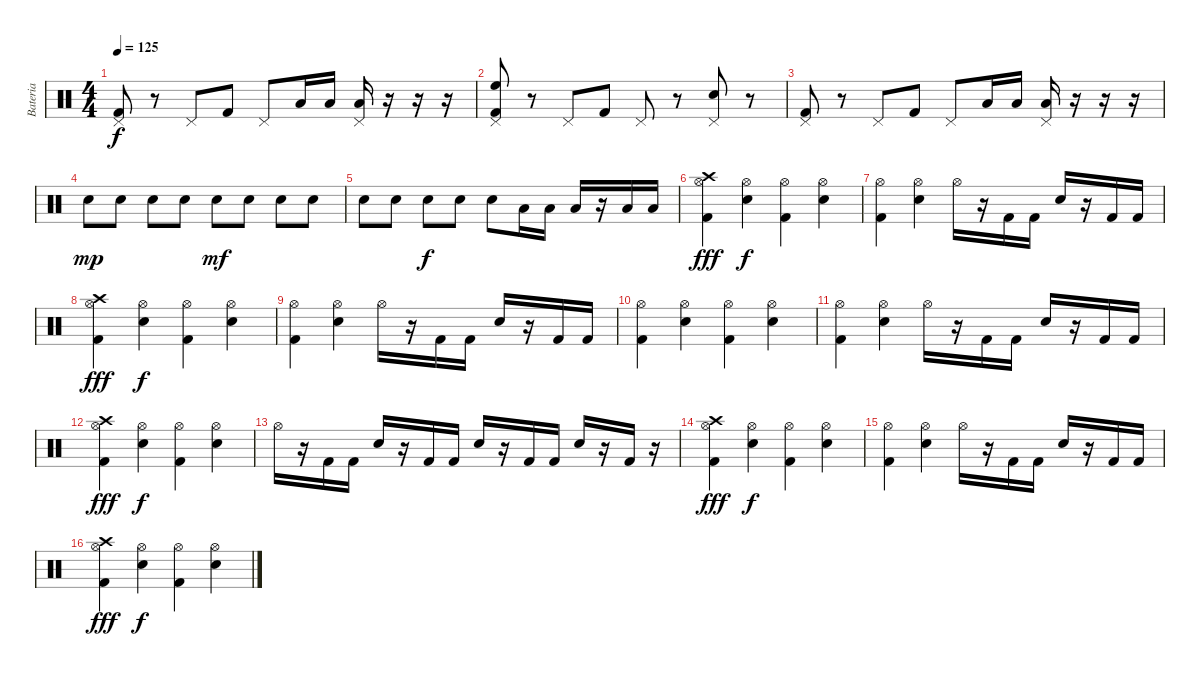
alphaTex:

\track ("Bateria" "Bateria") {instrument percussion}
\staff {score}
\articulation defaults
\ts (4 4)
\tempo 125
\clef neutral
\ks c
("Pedal Hi-Hat (hit)" "Kick (hit) 2").8{dy f} r.8 "Pedal Hi-Hat (hit)".8 "Kick (hit) 2".8 "Pedal Hi-Hat (hit)".8 "Low Tom (hit)".16 "Low Tom (hit)".16 ("Low Tom (hit)" "Pedal Hi-Hat (hit)").16 r.16 r.16 r.16 |
("High Floor Tom (hit)" "Pedal Hi-Hat (hit)" "Kick (hit) 2").8 r.8 "Pedal Hi-Hat (hit)".8 "Kick (hit) 2".8 "Pedal Hi-Hat (hit)".8 r.8 ("Snare (hit) 2" "Pedal Hi-Hat (hit)").8 r.8 |
("Pedal Hi-Hat (hit)" "Kick (hit) 2").8 r.8 "Pedal Hi-Hat (hit)".8 "Kick (hit) 2".8 "Pedal Hi-Hat (hit)".8 "Low Tom (hit)".16 "Low Tom (hit)".16 ("Low Tom (hit)" "Pedal Hi-Hat (hit)").16 r.16 r.16 r.16 |
"Snare (hit) 2".8{dy mp} "Snare (hit) 2".8 "Snare (hit) 2".8 "Snare (hit) 2".8 "Snare (hit) 2".8{dy mf} "Snare (hit) 2".8 "Snare (hit) 2".8 "Snare (hit) 2".8 |
"Snare (hit) 2".8 "Snare (hit) 2".8 "Snare (hit) 2".8{dy f} "Snare (hit) 2".8 "Snare (hit) 2".8 "Low Tom (hit)".16 "Low Tom (hit)".16 "Low Tom (hit)".16 r.16 "Low Tom (hit)".16 "Low Tom (hit)".16 |
("Hi-Hat (open)" "Kick (hit) 2" "Crash high (hit)").4{dy fff} ("Hi-Hat (open)" "Snare (hit) 2").4{dy f} ("Hi-Hat (open)" "Kick (hit) 2").4 ("Hi-Hat (open)" "Snare (hit) 2").4 |
("Hi-Hat (open)" "Kick (hit) 2").4 ("Hi-Hat (open)" "Snare (hit) 2").4 "Hi-Hat (open)".16 r.16 "Kick (hit) 2".16 "Kick (hit) 2".16 "Snare (hit) 2".16 r.16 "Kick (hit) 2".16 "Kick (hit) 2".16 |
("Hi-Hat (open)" "Kick (hit) 2" "Crash high (hit)").4{dy fff} ("Hi-Hat (open)" "Snare (hit) 2").4{dy f} ("Hi-Hat (open)" "Kick (hit) 2").4 ("Hi-Hat (open)" "Snare (hit) 2").4 |
("Hi-Hat (open)" "Kick (hit) 2").4 ("Hi-Hat (open)" "Snare (hit) 2").4 "Hi-Hat (open)".16 r.16 "Kick (hit) 2".16 "Kick (hit) 2".16 "Snare (hit) 2".16 r.16 "Kick (hit) 2".16 "Kick (hit) 2".16 |
("Hi-Hat (open)" "Kick (hit) 2").4 ("Hi-Hat (open)" "Snare (hit) 2").4 ("Hi-Hat (open)" "Kick (hit) 2").4 ("Hi-Hat (open)" "Snare (hit) 2").4 |
("Hi-Hat (open)" "Kick (hit) 2").4 ("Hi-Hat (open)" "Snare (hit) 2").4 "Hi-Hat (open)".16 r.16 "Kick (hit) 2".16 "Kick (hit) 2".16 "Snare (hit) 2".16 r.16 "Kick (hit) 2".16 "Kick (hit) 2".16 |
("Hi-Hat (open)" "Kick (hit) 2" "Crash high (hit)").4{dy fff} ("Hi-Hat (open)" "Snare (hit) 2").4{dy f} ("Hi-Hat (open)" "Kick (hit) 2").4 ("Hi-Hat (open)" "Snare (hit) 2").4 |
"Hi-Hat (open)".16 r.16 "Kick (hit) 2".16 "Kick (hit) 2".16 "Snare (hit) 2".16 r.16 "Kick (hit) 2".16 "Kick (hit) 2".16 "Snare (hit) 2".16 r.16 "Kick (hit) 2".16 "Kick (hit) 2".16 "Snare (hit) 2".16 r.16 "Kick (hit) 2".16 r.16 |
("Hi-Hat (open)" "Kick (hit) 2" "Crash high (hit)").4{dy fff} ("Hi-Hat (open)" "Snare (hit) 2").4{dy f} ("Hi-Hat (open)" "Kick (hit) 2").4 ("Hi-Hat (open)" "Snare (hit) 2").4 |
("Hi-Hat (open)" "Kick (hit) 2").4 ("Hi-Hat (open)" "Snare (hit) 2").4 "Hi-Hat (open)".16 r.16 "Kick (hit) 2".16 "Kick (hit) 2".16 "Snare (hit) 2".16 r.16 "Kick (hit) 2".16 "Kick (hit) 2".16 |
("Hi-Hat (open)" "Kick (hit) 2" "Crash high (hit)").4{dy fff} ("Hi-Hat (open)" "Snare (hit) 2").4{dy f} ("Hi-Hat (open)" "Kick (hit) 2").4 ("Hi-Hat (open)" "Snare (hit) 2").4
